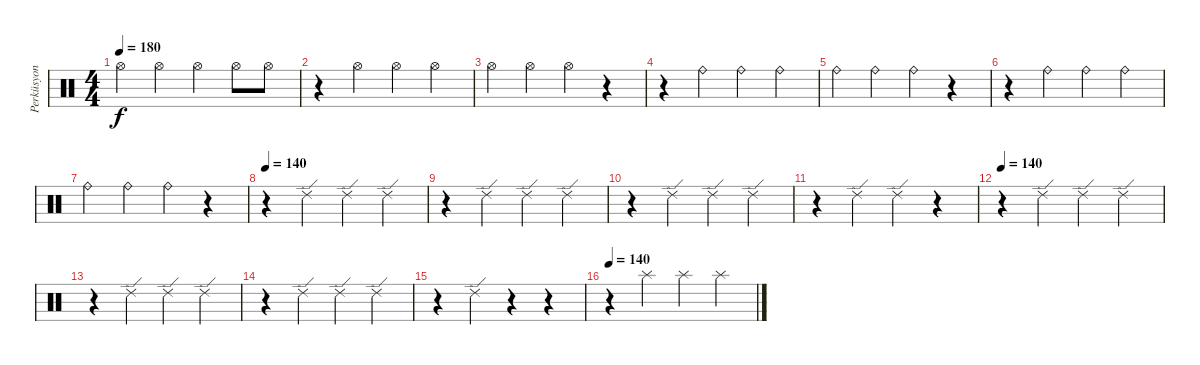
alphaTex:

\track ("Perküsyon" "Perküsyon") {instrument percussion}
\staff {score}
\articulation defaults
\ts (4 4)
\tempo 180
\clef neutral
\ks c "Hi-Hat (open)".4{dy f} "Hi-Hat (open)".4 "Hi-Hat (open)".4 "Hi-Hat (open)".8 "Hi-Hat (open)".8
|
r.4 "Hi-Hat (open)".4 "Hi-Hat (open)".4 "Hi-Hat (open)".4 |
"Hi-Hat (open)".4 "Hi-Hat (open)".4 "Hi-Hat (open)".4 r.4 |
r.4 "Ride (bell)".4 "Ride (bell)".4 "Ride (bell)".4 |
"Ride (bell)".4 "Ride (bell)".4 "Ride (bell)".4 r.4 |
r.4 "Ride (bell)".4 "Ride (bell)".4 "Ride (bell)".4 |
"Ride (bell)".4 "Ride (bell)".4 "Ride (bell)".4 r.4 |
\tempo 140
r.4 "Ride (edge) 2".4 "Ride (edge) 2".4 "Ride (edge) 2".4 |
r.4 "Ride (edge) 2".4 "Ride (edge) 2".4 "Ride (edge) 2".4 |
r.4 "Ride (edge) 2".4 "Ride (edge) 2".4 "Ride (edge) 2".4 |
r.4 "Ride (edge) 2".4 "Ride (edge) 2".4 r.4 |
\tempo 140
r.4 "Ride (edge) 2".4 "Ride (edge) 2".4 "Ride (edge) 2".4 |
r.4 "Ride (edge) 2".4 "Ride (edge) 2".4 "Ride (edge) 2".4 |
r.4 "Ride (edge) 2".4 "Ride (edge) 2".4 "Ride (edge) 2".4 |
r.4 "Ride (edge) 2".4 r.4 r.4 |
\tempo 140
r.4 "Splash (hit)".4 "Splash (hit)".4 "Splash (hit)".4
